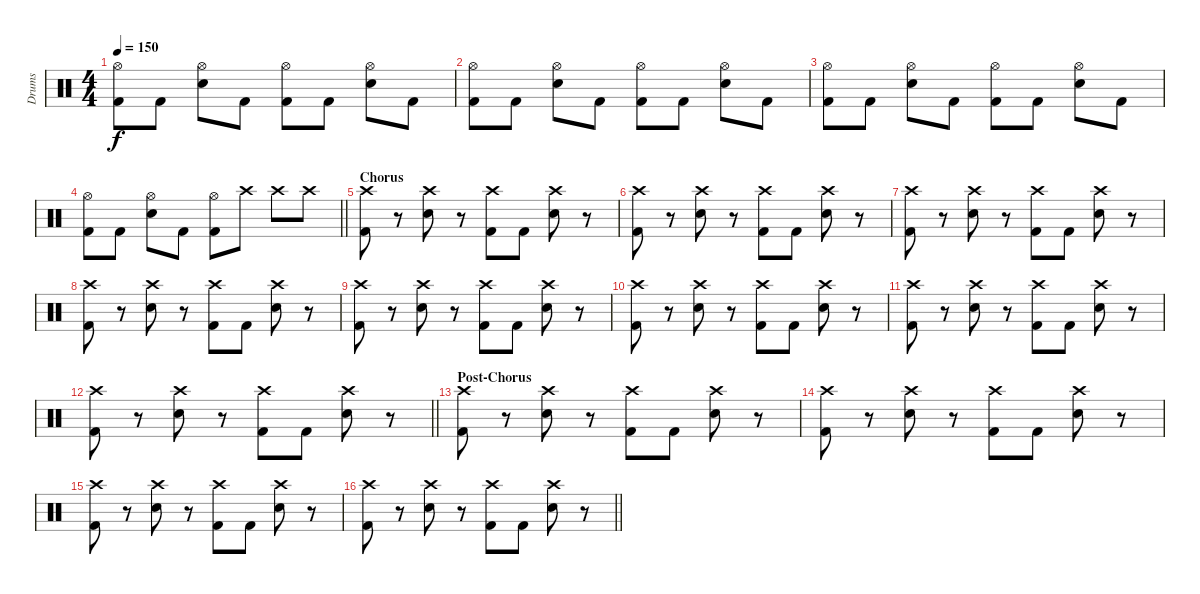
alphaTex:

\track ("Drums" "Drums") {instrument percussion}
\staff {score}
\articulation defaults
\ts (4 4)
\tempo 150
\clef neutral
\ks c
("Hi-Hat (open)" "Kick (hit) 2").8{dy f} "Kick (hit) 2".8 ("Hi-Hat (open)" "Snare (hit) 2").8 "Kick (hit) 2".8 ("Hi-Hat (open)" "Kick (hit) 2").8 "Kick (hit) 2".8 ("Hi-Hat (open)" "Snare (hit) 2").8 "Kick (hit) 2".8 |
("Hi-Hat (open)" "Kick (hit) 2").8 "Kick (hit) 2".8 ("Hi-Hat (open)" "Snare (hit) 2").8 "Kick (hit) 2".8 ("Hi-Hat (open)" "Kick (hit) 2").8 "Kick (hit) 2".8 ("Hi-Hat (open)" "Snare (hit) 2").8 "Kick (hit) 2".8 |
("Hi-Hat (open)" "Kick (hit) 2").8 "Kick (hit) 2".8 ("Hi-Hat (open)" "Snare (hit) 2").8 "Kick (hit) 2".8 ("Hi-Hat (open)" "Kick (hit) 2").8 "Kick (hit) 2".8 ("Hi-Hat (open)" "Snare (hit) 2").8 "Kick (hit) 2".8 |
\barLineRight lightlight
("Hi-Hat (open)" "Kick (hit) 2").8 "Kick (hit) 2".8 ("Hi-Hat (open)" "Snare (hit) 2").8 "Kick (hit) 2".8 ("Hi-Hat (open)" "Kick (hit) 2").8 "Crash high (hit)".8 "Crash high (hit)".8 "Crash high (hit)".8 |
\section ("" "Chorus")
("Crash high (hit)" "Kick (hit) 2").8 r.8 ("Crash high (hit)" "Snare (hit) 2").8 r.8 ("Crash high (hit)" "Kick (hit) 2").8 "Kick (hit) 2".8 ("Crash high (hit)" "Snare (hit) 2").8 r.8 |
("Crash high (hit)" "Kick (hit) 2").8 r.8 ("Crash high (hit)" "Snare (hit) 2").8 r.8 ("Crash high (hit)" "Kick (hit) 2").8 "Kick (hit) 2".8 ("Crash high (hit)" "Snare (hit) 2").8 r.8 |
("Crash high (hit)" "Kick (hit) 2").8 r.8 ("Crash high (hit)" "Snare (hit) 2").8 r.8 ("Crash high (hit)" "Kick (hit) 2").8 "Kick (hit) 2".8 ("Crash high (hit)" "Snare (hit) 2").8 r.8 |
("Crash high (hit)" "Kick (hit) 2").8 r.8 ("Crash high (hit)" "Snare (hit) 2").8 r.8 ("Crash high (hit)" "Kick (hit) 2").8 "Kick (hit) 2".8 ("Crash high (hit)" "Snare (hit) 2").8 r.8 |
("Crash high (hit)" "Kick (hit) 2").8 r.8 ("Crash high (hit)" "Snare (hit) 2").8 r.8 ("Crash high (hit)" "Kick (hit) 2").8 "Kick (hit) 2".8 ("Crash high (hit)" "Snare (hit) 2").8 r.8 |
("Crash high (hit)" "Kick (hit) 2").8 r.8 ("Crash high (hit)" "Snare (hit) 2").8 r.8 ("Crash high (hit)" "Kick (hit) 2").8 "Kick (hit) 2".8 ("Crash high (hit)" "Snare (hit) 2").8 r.8 |
("Crash high (hit)" "Kick (hit) 2").8 r.8 ("Crash high (hit)" "Snare (hit) 2").8 r.8 ("Crash high (hit)" "Kick (hit) 2").8 "Kick (hit) 2".8 ("Crash high (hit)" "Snare (hit) 2").8 r.8 |
\barLineRight lightlight
("Crash high (hit)" "Kick (hit) 2").8 r.8 ("Crash high (hit)" "Snare (hit) 2").8 r.8 ("Crash high (hit)" "Kick (hit) 2").8 "Kick (hit) 2".8 ("Crash high (hit)" "Snare (hit) 2").8 r.8 |
\section ("" "Post-Chorus")
("Crash high (hit)" "Kick (hit) 2").8 r.8 ("Crash high (hit)" "Snare (hit) 2").8 r.8 ("Crash high (hit)" "Kick (hit) 2").8 "Kick (hit) 2".8 ("Crash high (hit)" "Snare (hit) 2").8 r.8 |
("Crash high (hit)" "Kick (hit) 2").8 r.8 ("Crash high (hit)" "Snare (hit) 2").8 r.8 ("Crash high (hit)" "Kick (hit) 2").8 "Kick (hit) 2".8 ("Crash high (hit)" "Snare (hit) 2").8 r.8 |
("Crash high (hit)" "Kick (hit) 2").8 r.8 ("Crash high (hit)" "Snare (hit) 2").8 r.8 ("Crash high (hit)" "Kick (hit) 2").8 "Kick (hit) 2".8 ("Crash high (hit)" "Snare (hit) 2").8 r.8 |
\barLineRight lightlight
("Crash high (hit)" "Kick (hit) 2").8 r.8 ("Crash high (hit)" "Snare (hit) 2").8 r.8 ("Crash high (hit)" "Kick (hit) 2").8 "Kick (hit) 2".8 ("Crash high (hit)" "Snare (hit) 2").8 r.8
